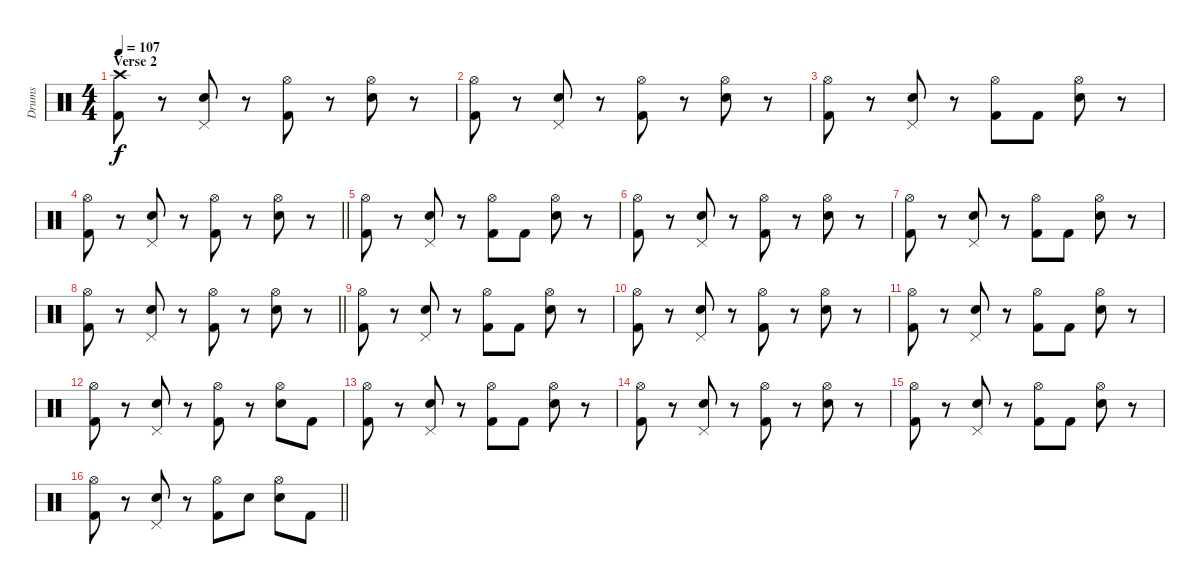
\track ("Drums" "Drums") {instrument percussion}
\staff {score}
\articulation defaults
\ts (4 4)
\section ("" "Verse 2")
\tempo 107
\clef neutral
\ks c
("Crash high (hit)" "Kick (hit) 2").8{dy f} r.8 ("Pedal Hi-Hat (hit)" "Electric Snare (hit)").8 r.8 ("Hi-Hat (open)" "Kick (hit) 2").8 r.8 ("Hi-Hat (open)" "Electric Snare (hit)").8 r.8 |
("Hi-Hat (open)" "Kick (hit) 2").8 r.8 ("Pedal Hi-Hat (hit)" "Electric Snare (hit)").8 r.8 ("Hi-Hat (open)" "Kick (hit) 2").8 r.8 ("Hi-Hat (open)" "Electric Snare (hit)").8 r.8 |
("Hi-Hat (open)" "Kick (hit) 2").8 r.8 ("Pedal Hi-Hat (hit)" "Electric Snare (hit)").8 r.8 ("Hi-Hat (open)" "Kick (hit) 2").8 "Kick (hit) 2".8 ("Hi-Hat (open)" "Electric Snare (hit)").8 r.8 |
\barLineRight lightlight
("Hi-Hat (open)" "Kick (hit) 2").8 r.8 ("Pedal Hi-Hat (hit)" "Electric Snare (hit)").8 r.8 ("Hi-Hat (open)" "Kick (hit) 2").8 r.8 ("Hi-Hat (open)" "Electric Snare (hit)").8 r.8 |
("Hi-Hat (open)" "Kick (hit) 2").8 r.8 ("Pedal Hi-Hat (hit)" "Electric Snare (hit)").8 r.8 ("Hi-Hat (open)" "Kick (hit) 2").8 "Kick (hit) 2".8 ("Hi-Hat (open)" "Electric Snare (hit)").8 r.8 |
("Hi-Hat (open)" "Kick (hit) 2").8 r.8 ("Pedal Hi-Hat (hit)" "Electric Snare (hit)").8 r.8 ("Hi-Hat (open)" "Kick (hit) 2").8 r.8 ("Hi-Hat (open)" "Electric Snare (hit)").8 r.8 |
("Hi-Hat (open)" "Kick (hit) 2").8 r.8 ("Pedal Hi-Hat (hit)" "Electric Snare (hit)").8 r.8 ("Hi-Hat (open)" "Kick (hit) 2").8 "Kick (hit) 2".8 ("Hi-Hat (open)" "Electric Snare (hit)").8 r.8 |
\barLineRight lightlight
("Hi-Hat (open)" "Kick (hit) 2").8 r.8 ("Pedal Hi-Hat (hit)" "Electric Snare (hit)").8 r.8 ("Hi-Hat (open)" "Kick (hit) 2").8 r.8 ("Hi-Hat (open)" "Electric Snare (hit)").8 r.8 |
("Hi-Hat (open)" "Kick (hit) 2").8 r.8 ("Pedal Hi-Hat (hit)" "Electric Snare (hit)").8 r.8 ("Hi-Hat (open)" "Kick (hit) 2").8 "Kick (hit) 2".8 ("Hi-Hat (open)" "Electric Snare (hit)").8 r.8 |
("Hi-Hat (open)" "Kick (hit) 2").8 r.8 ("Pedal Hi-Hat (hit)" "Electric Snare (hit)").8 r.8 ("Hi-Hat (open)" "Kick (hit) 2").8 r.8 ("Hi-Hat (open)" "Electric Snare (hit)").8 r.8 |
("Hi-Hat (open)" "Kick (hit) 2").8 r.8 ("Pedal Hi-Hat (hit)" "Electric Snare (hit)").8 r.8 ("Hi-Hat (open)" "Kick (hit) 2").8 "Kick (hit) 2".8 ("Hi-Hat (open)" "Electric Snare (hit)").8 r.8 |
("Hi-Hat (open)" "Kick (hit) 2").8 r.8 ("Pedal Hi-Hat (hit)" "Electric Snare (hit)").8 r.8 ("Hi-Hat (open)" "Kick (hit) 2").8 r.8 ("Hi-Hat (open)" "Electric Snare (hit)").8 "Kick (hit) 2".8 |
("Hi-Hat (open)" "Kick (hit) 2").8 r.8 ("Pedal Hi-Hat (hit)" "Electric Snare (hit)").8 r.8 ("Hi-Hat (open)" "Kick (hit) 2").8 "Kick (hit) 2".8 ("Hi-Hat (open)" "Electric Snare (hit)").8 r.8 |
("Hi-Hat (open)" "Kick (hit) 2").8 r.8 ("Pedal Hi-Hat (hit)" "Electric Snare (hit)").8 r.8 ("Hi-Hat (open)" "Kick (hit) 2").8 r.8 ("Hi-Hat (open)" "Electric Snare (hit)").8 r.8 |
("Hi-Hat (open)" "Kick (hit) 2").8 r.8 ("Pedal Hi-Hat (hit)" "Electric Snare (hit)").8 r.8 ("Hi-Hat (open)" "Kick (hit) 2").8 "Kick (hit) 2".8 ("Hi-Hat (open)" "Electric Snare (hit)").8 r.8 |
\barLineRight lightlight
("Hi-Hat (open)" "Kick (hit) 2").8 r.8 ("Pedal Hi-Hat (hit)" "Electric Snare (hit)").8 r.8 ("Hi-Hat (open)" "Kick (hit) 2").8 "Electric Snare (hit)".8 ("Hi-Hat (open)" "Electric Snare (hit)").8 "Kick (hit) 2".8
